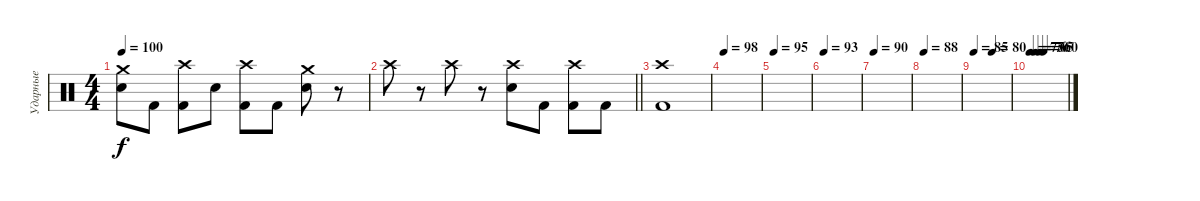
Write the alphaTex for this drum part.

\track ("Ударные" "Ударные") {instrument percussion}
\staff {score}
\articulation defaults
\ts (4 4)
\tempo 100
\clef neutral
\ks c
("Crash medium (hit)" "Electric Snare (hit)").8{dy f} "Kick (hit) 2".8 ("Crash high (hit)" "Kick (hit) 2").8 "Electric Snare (hit)".8 ("Crash high (hit)" "Kick (hit) 2").8 "Kick (hit) 2".8 ("Crash medium (hit)" "Electric Snare (hit)").8 r.8 |
\barLineRight lightlight "Crash high (hit)".8
r.8 "Crash high (hit)".8 r.8 ("Crash high (hit)" "Electric Snare (hit)").8 "Kick (hit) 2".8 ("Crash high (hit)" "Kick (hit) 2").8 "Kick (hit) 2".8 |
\section ("" "")
("Crash high (hit)" "Kick (hit) 2").1 |
\tempo 98
|
\tempo 95
|
\tempo 93
|
\tempo 90
|
\tempo 88
|
\tempo 85
\tempo (80 0.5)
|
\tempo 75
\tempo (70 0.125)
\tempo (65 0.25)
\tempo (60 0.375)
